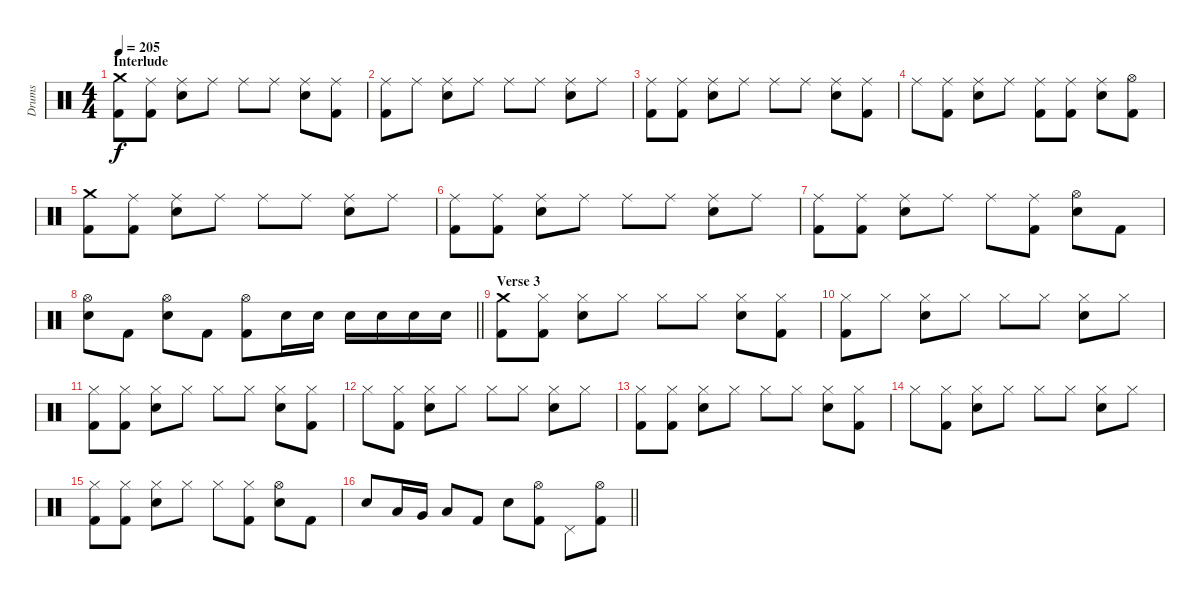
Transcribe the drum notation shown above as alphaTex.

\track ("Drums" "Drums") {instrument percussion}
\staff {score}
\articulation defaults
\ts (4 4)
\section ("" "Interlude")
\tempo 205
\clef neutral
\ks c
("Crash medium (hit)" "Kick (hit) 2").8{dy f} ("Ride (middle)" "Kick (hit) 2").8 ("Ride (middle)" "Electric Snare (hit)").8 "Ride (middle)".8 "Ride (middle)".8 "Ride (middle)".8 ("Ride (middle)" "Electric Snare (hit)").8 ("Ride (middle)" "Kick (hit) 2").8 |
("Ride (middle)" "Kick (hit) 2").8 "Ride (middle)".8 ("Ride (middle)" "Electric Snare (hit)").8 "Ride (middle)".8 "Ride (middle)".8 "Ride (middle)".8 ("Ride (middle)" "Electric Snare (hit)").8 "Ride (middle)".8 |
("Ride (middle)" "Kick (hit) 2").8 ("Ride (middle)" "Kick (hit) 2").8 ("Ride (middle)" "Electric Snare (hit)").8 "Ride (middle)".8 "Ride (middle)".8 "Ride (middle)".8 ("Ride (middle)" "Electric Snare (hit)").8 ("Ride (middle)" "Kick (hit) 2").8 |
"Ride (middle)".8 ("Ride (middle)" "Kick (hit) 2").8 ("Ride (middle)" "Electric Snare (hit)").8 "Ride (middle)".8 ("Ride (middle)" "Kick (hit) 2").8 ("Ride (middle)" "Kick (hit) 2").8 ("Ride (middle)" "Electric Snare (hit)").8 ("Hi-Hat (open)" "Kick (hit) 2").8 |
("Crash medium (hit)" "Kick (hit) 2").8 ("Ride (middle)" "Kick (hit) 2").8 ("Ride (middle)" "Electric Snare (hit)").8 "Ride (middle)".8 "Ride (middle)".8 "Ride (middle)".8 ("Ride (middle)" "Electric Snare (hit)").8 "Ride (middle)".8 |
("Ride (middle)" "Kick (hit) 2").8 ("Ride (middle)" "Kick (hit) 2").8 ("Ride (middle)" "Electric Snare (hit)").8 "Ride (middle)".8 "Ride (middle)".8 "Ride (middle)".8 ("Ride (middle)" "Electric Snare (hit)").8 "Ride (middle)".8 |
("Ride (middle)" "Kick (hit) 2").8 ("Ride (middle)" "Kick (hit) 2").8 ("Ride (middle)" "Electric Snare (hit)").8 "Ride (middle)".8 "Ride (middle)".8 ("Ride (middle)" "Kick (hit) 2").8 ("Hi-Hat (open)" "Electric Snare (hit)").8 "Kick (hit) 2".8 |
\barLineRight lightlight
("Hi-Hat (open)" "Electric Snare (hit)").8 "Kick (hit) 2".8 ("Hi-Hat (open)" "Electric Snare (hit)").8 "Kick (hit) 2".8 ("Hi-Hat (open)" "Kick (hit) 2").8 "Electric Snare (hit)".16 "Electric Snare (hit)".16 "Electric Snare (hit)".16 "Electric Snare (hit)".16 "Electric Snare (hit)".16 "Electric Snare (hit)".16 |
\section ("" "Verse 3")
("Crash medium (hit)" "Kick (hit) 2").8 ("Hi-Hat (closed)" "Kick (hit) 2").8 ("Hi-Hat (closed)" "Electric Snare (hit)").8 "Hi-Hat (closed)".8 "Hi-Hat (closed)".8 "Hi-Hat (closed)".8 ("Hi-Hat (closed)" "Electric Snare (hit)").8 ("Hi-Hat (closed)" "Kick (hit) 2").8 |
("Hi-Hat (closed)" "Kick (hit) 2").8 "Hi-Hat (closed)".8 ("Hi-Hat (closed)" "Electric Snare (hit)").8 "Hi-Hat (closed)".8 "Hi-Hat (closed)".8 "Hi-Hat (closed)".8 ("Hi-Hat (closed)" "Electric Snare (hit)").8 "Hi-Hat (closed)".8 |
("Hi-Hat (closed)" "Kick (hit) 2").8 ("Hi-Hat (closed)" "Kick (hit) 2").8 ("Hi-Hat (closed)" "Electric Snare (hit)").8 "Hi-Hat (closed)".8 "Hi-Hat (closed)".8 "Hi-Hat (closed)".8 ("Hi-Hat (closed)" "Electric Snare (hit)").8 ("Hi-Hat (closed)" "Kick (hit) 2").8 |
"Hi-Hat (closed)".8 ("Hi-Hat (closed)" "Kick (hit) 2").8 ("Hi-Hat (closed)" "Electric Snare (hit)").8 "Hi-Hat (closed)".8 "Hi-Hat (closed)".8 "Hi-Hat (closed)".8 ("Hi-Hat (closed)" "Electric Snare (hit)").8 "Hi-Hat (closed)".8 |
("Hi-Hat (closed)" "Kick (hit) 2").8 ("Hi-Hat (closed)" "Kick (hit) 2").8 ("Hi-Hat (closed)" "Electric Snare (hit)").8 "Hi-Hat (closed)".8 "Hi-Hat (closed)".8 "Hi-Hat (closed)".8 ("Hi-Hat (closed)" "Electric Snare (hit)").8 ("Hi-Hat (closed)" "Kick (hit) 2").8 |
"Hi-Hat (closed)".8 ("Hi-Hat (closed)" "Kick (hit) 2").8 ("Hi-Hat (closed)" "Electric Snare (hit)").8 "Hi-Hat (closed)".8 "Hi-Hat (closed)".8 "Hi-Hat (closed)".8 ("Hi-Hat (closed)" "Electric Snare (hit)").8 "Hi-Hat (closed)".8 |
("Hi-Hat (closed)" "Kick (hit) 2").8 ("Hi-Hat (closed)" "Kick (hit) 2").8 ("Hi-Hat (closed)" "Electric Snare (hit)").8 "Hi-Hat (closed)".8 "Hi-Hat (closed)".8 ("Hi-Hat (closed)" "Kick (hit) 2").8 ("Hi-Hat (open)" "Electric Snare (hit)").8 "Kick (hit) 2".8 |
\barLineRight lightlight "Electric Snare (hit)".8 "Low Tom (hit)".16 "Very Low Tom (hit)".16 "Low Floor Tom (hit)".8 "Kick (hit) 2".8 "Electric Snare (hit)".8
("Hi-Hat (open)" "Kick (hit) 2").8 "Pedal Hi-Hat (hit)".8 ("Hi-Hat (open)" "Kick (hit) 2").8
